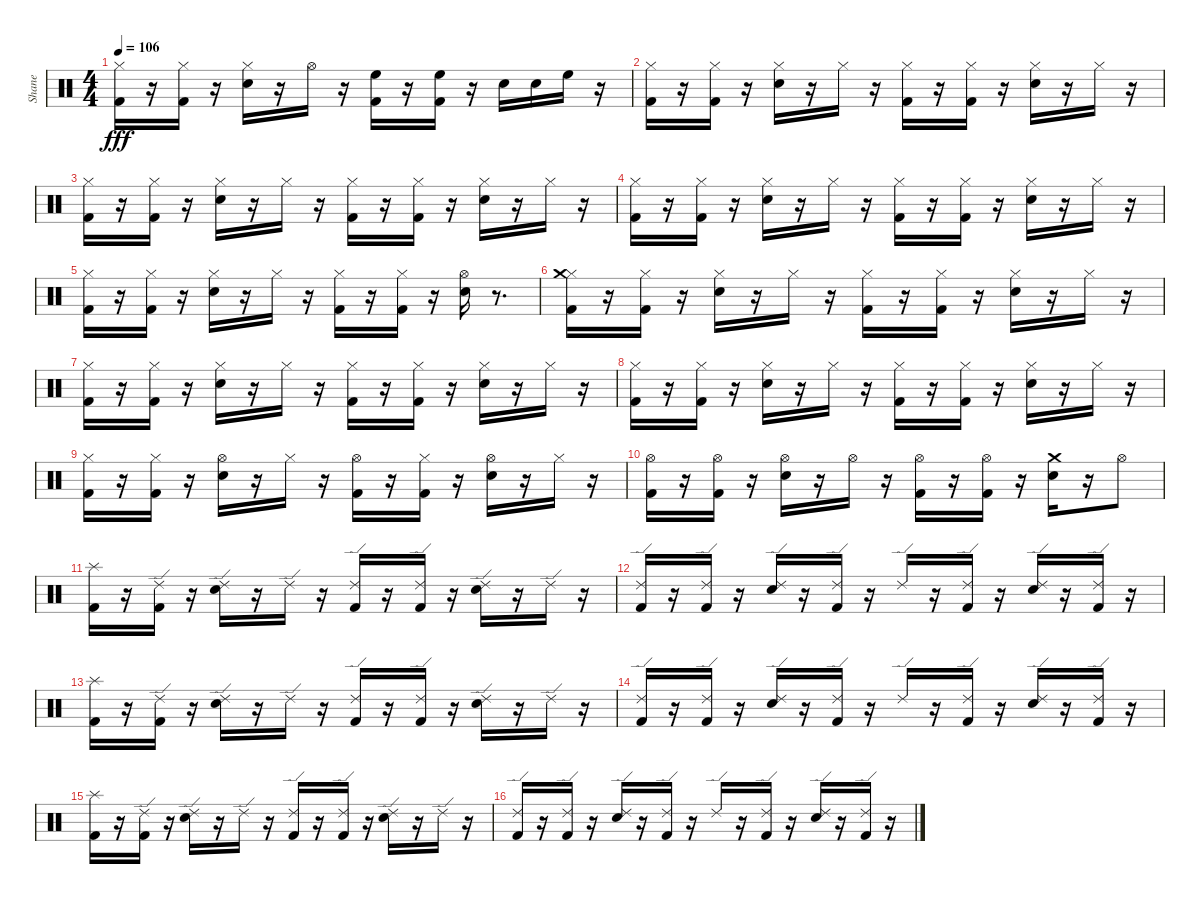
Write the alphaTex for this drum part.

\track ("Shane" "Shane") {instrument percussion}
\staff {score}
\articulation defaults
\ts (4 4)
\tempo 106
\clef neutral
\ks c
("Hi-Hat (closed)" "Kick (hit) 2").16{dy fff} r.16 ("Hi-Hat (closed)" "Kick (hit) 2").16 r.16 ("Hi-Hat (closed)" "Snare (hit) 2").16 r.16 "Hi-Hat (open)".16 r.16 ("Kick (hit) 2" "High Floor Tom (hit)").16 r.16 ("Kick (hit) 2" "High Floor Tom (hit)").16 r.16 "Snare (hit) 2".16 "Snare (hit) 2".16 "High Floor Tom (hit)".16 r.16 |
("Hi-Hat (closed)" "Kick (hit) 2").16 r.16 ("Hi-Hat (closed)" "Kick (hit) 2").16 r.16 ("Hi-Hat (closed)" "Snare (hit) 2").16 r.16 "Hi-Hat (closed)".16 r.16 ("Hi-Hat (closed)" "Kick (hit) 2").16 r.16 ("Hi-Hat (closed)" "Kick (hit) 2").16 r.16 ("Hi-Hat (closed)" "Snare (hit) 2").16 r.16 "Hi-Hat (closed)".16 r.16 |
("Hi-Hat (closed)" "Kick (hit) 2").16 r.16 ("Hi-Hat (closed)" "Kick (hit) 2").16 r.16 ("Hi-Hat (closed)" "Snare (hit) 2").16 r.16 "Hi-Hat (closed)".16 r.16 ("Hi-Hat (closed)" "Kick (hit) 2").16 r.16 ("Hi-Hat (closed)" "Kick (hit) 2").16 r.16 ("Hi-Hat (closed)" "Snare (hit) 2").16 r.16 "Hi-Hat (closed)".16 r.16 |
("Hi-Hat (closed)" "Kick (hit) 2").16 r.16 ("Hi-Hat (closed)" "Kick (hit) 2").16 r.16 ("Hi-Hat (closed)" "Snare (hit) 2").16 r.16 "Hi-Hat (closed)".16 r.16 ("Hi-Hat (closed)" "Kick (hit) 2").16 r.16 ("Hi-Hat (closed)" "Kick (hit) 2").16 r.16 ("Hi-Hat (closed)" "Snare (hit) 2").16 r.16 "Hi-Hat (closed)".16 r.16 |
("Hi-Hat (closed)" "Kick (hit) 2").16 r.16 ("Hi-Hat (closed)" "Kick (hit) 2").16 r.16 ("Hi-Hat (closed)" "Snare (hit) 2").16 r.16 "Hi-Hat (closed)".16 r.16 ("Hi-Hat (closed)" "Kick (hit) 2").16 r.16 ("Hi-Hat (closed)" "Kick (hit) 2").16 r.16 ("Snare (hit) 2" "Hi-Hat (open)").16 r.8{d} |
("Hi-Hat (closed)" "Kick (hit) 2" "Crash medium (hit)").16 r.16 ("Hi-Hat (closed)" "Kick (hit) 2").16 r.16 ("Hi-Hat (closed)" "Snare (hit) 2").16 r.16 "Hi-Hat (closed)".16 r.16 ("Hi-Hat (closed)" "Kick (hit) 2").16 r.16 ("Hi-Hat (closed)" "Kick (hit) 2").16 r.16 ("Hi-Hat (closed)" "Snare (hit) 2").16 r.16 "Hi-Hat (closed)".16 r.16 |
("Hi-Hat (closed)" "Kick (hit) 2").16 r.16 ("Hi-Hat (closed)" "Kick (hit) 2").16 r.16 ("Hi-Hat (closed)" "Snare (hit) 2").16 r.16 "Hi-Hat (closed)".16 r.16 ("Hi-Hat (closed)" "Kick (hit) 2").16 r.16 ("Hi-Hat (closed)" "Kick (hit) 2").16 r.16 ("Hi-Hat (closed)" "Snare (hit) 2").16 r.16 "Hi-Hat (closed)".16 r.16 |
("Hi-Hat (closed)" "Kick (hit) 2").16 r.16 ("Hi-Hat (closed)" "Kick (hit) 2").16 r.16 ("Hi-Hat (closed)" "Snare (hit) 2").16 r.16 "Hi-Hat (closed)".16 r.16 ("Hi-Hat (closed)" "Kick (hit) 2").16 r.16 ("Hi-Hat (closed)" "Kick (hit) 2").16 r.16 ("Hi-Hat (closed)" "Snare (hit) 2").16 r.16 "Hi-Hat (closed)".16 r.16 |
("Hi-Hat (closed)" "Kick (hit) 2").16 r.16 ("Hi-Hat (closed)" "Kick (hit) 2").16 r.16 ("Snare (hit) 2" "Hi-Hat (open)").16 r.16 "Hi-Hat (closed)".16 r.16 ("Kick (hit) 2" "Hi-Hat (open)").16 r.16 ("Kick (hit) 2" "Hi-Hat (closed)").16 r.16 ("Snare (hit) 2" "Hi-Hat (open)").16 r.16 "Hi-Hat (closed)".16 r.16 |
("Kick (hit) 2" "Hi-Hat (open)").16 r.16 ("Kick (hit) 2" "Hi-Hat (open)").16 r.16 ("Snare (hit) 2" "Hi-Hat (open)").16 r.16 "Hi-Hat (open)".16 r.16 ("Kick (hit) 2" "Hi-Hat (open)").16 r.16 ("Kick (hit) 2" "Hi-Hat (open)").16 r.16 ("Snare (hit) 2" "Crash medium (hit)").16 r.16 "Hi-Hat (open)".8 |
("Splash (hit)" "Kick (hit) 2").16 r.16 ("Kick (hit) 2" "Ride (edge) 2").16 r.16 ("Snare (hit) 2" "Ride (edge) 2").16 r.16 "Ride (edge) 2".16 r.16 ("Kick (hit) 2" "Ride (edge) 2").16 r.16 ("Kick (hit) 2" "Ride (edge) 2").16 r.16 ("Snare (hit) 2" "Ride (edge) 2").16 r.16 "Ride (edge) 2".16 r.16 |
("Ride (edge) 2" "Kick (hit) 2").16 r.16 ("Kick (hit) 2" "Ride (edge) 2").16 r.16 ("Snare (hit) 2" "Ride (edge) 2").16 r.16 ("Kick (hit) 2" "Ride (edge) 2").16 r.16 "Ride (edge) 2".16 r.16 ("Kick (hit) 2" "Ride (edge) 2").16 r.16 ("Snare (hit) 2" "Ride (edge) 2").16 r.16 ("Kick (hit) 2" "Ride (edge) 2").16 r.16 |
("Splash (hit)" "Kick (hit) 2").16 r.16 ("Kick (hit) 2" "Ride (edge) 2").16 r.16 ("Snare (hit) 2" "Ride (edge) 2").16 r.16 "Ride (edge) 2".16 r.16 ("Kick (hit) 2" "Ride (edge) 2").16 r.16 ("Kick (hit) 2" "Ride (edge) 2").16 r.16 ("Snare (hit) 2" "Ride (edge) 2").16 r.16 "Ride (edge) 2".16 r.16 |
("Ride (edge) 2" "Kick (hit) 2").16 r.16 ("Kick (hit) 2" "Ride (edge) 2").16 r.16 ("Snare (hit) 2" "Ride (edge) 2").16 r.16 ("Kick (hit) 2" "Ride (edge) 2").16 r.16 "Ride (edge) 2".16 r.16 ("Kick (hit) 2" "Ride (edge) 2").16 r.16 ("Snare (hit) 2" "Ride (edge) 2").16 r.16 ("Kick (hit) 2" "Ride (edge) 2").16 r.16 |
("Splash (hit)" "Kick (hit) 2").16 r.16 ("Kick (hit) 2" "Ride (edge) 2").16 r.16 ("Snare (hit) 2" "Ride (edge) 2").16 r.16 "Ride (edge) 2".16 r.16 ("Kick (hit) 2" "Ride (edge) 2").16 r.16 ("Kick (hit) 2" "Ride (edge) 2").16 r.16 ("Snare (hit) 2" "Ride (edge) 2").16 r.16 "Ride (edge) 2".16 r.16 |
("Ride (edge) 2" "Kick (hit) 2").16 r.16 ("Kick (hit) 2" "Ride (edge) 2").16 r.16 ("Snare (hit) 2" "Ride (edge) 2").16 r.16 ("Kick (hit) 2" "Ride (edge) 2").16 r.16 "Ride (edge) 2".16 r.16 ("Kick (hit) 2" "Ride (edge) 2").16 r.16 ("Snare (hit) 2" "Ride (edge) 2").16 r.16 ("Kick (hit) 2" "Ride (edge) 2").16 r.16
